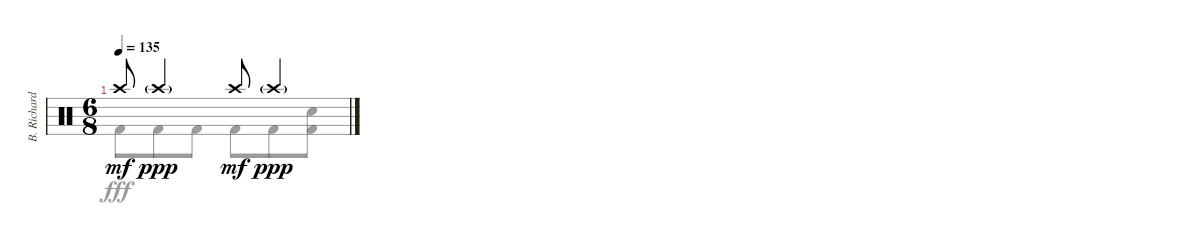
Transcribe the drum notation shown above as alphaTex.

\track ("B. Richardson Drums" "B. Richard") {instrument percussion}
\staff {score}
\articulation defaults
\voice
\ts (6 8)
\tempo 135
\clef neutral
\ks c "Crash high (hit)".8{dy mf} "Crash high (hit)"{g}.4{dy ppp} "Crash high (hit)".8{dy mf} "Crash high (hit)"{g}.4{dy ppp}
\voice
\clef neutral
\ks c "Kick (hit) 2".8{dy fff} "Kick (hit) 2".8 "Kick (hit) 2".8 "Kick (hit) 2".8 "Kick (hit) 2".8
("Electric Snare (hit)" "Kick (hit) 2").8
